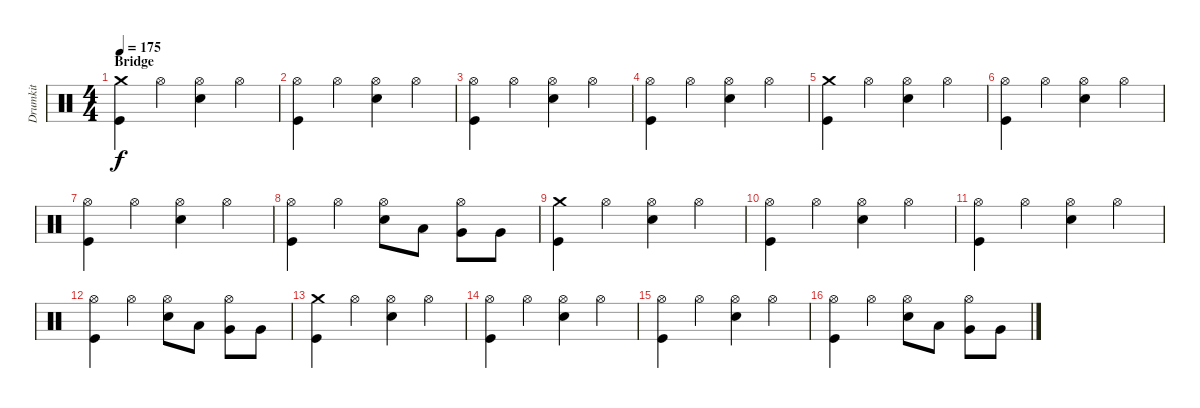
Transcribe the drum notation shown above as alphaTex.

\track ("Drumkit" "Drumkit") {instrument percussion}
\staff {score}
\articulation defaults
\ts (4 4)
\section ("" "Bridge")
\tempo 175
\clef neutral
\ks c
("Kick (hit)" "Crash medium (hit)").4{dy f} "Hi-Hat (open)".4 ("Snare (hit) 2" "Hi-Hat (open)").4 "Hi-Hat (open)".4 |
("Kick (hit)" "Hi-Hat (open)").4 "Hi-Hat (open)".4 ("Snare (hit) 2" "Hi-Hat (open)").4 "Hi-Hat (open)".4 |
("Kick (hit)" "Hi-Hat (open)").4 "Hi-Hat (open)".4 ("Snare (hit) 2" "Hi-Hat (open)").4 "Hi-Hat (open)".4 |
("Kick (hit)" "Hi-Hat (open)").4 "Hi-Hat (open)".4 ("Snare (hit) 2" "Hi-Hat (open)").4 "Hi-Hat (open)".4 |
("Kick (hit)" "Crash medium (hit)").4 "Hi-Hat (open)".4 ("Snare (hit) 2" "Hi-Hat (open)").4 "Hi-Hat (open)".4 |
("Kick (hit)" "Hi-Hat (open)").4 "Hi-Hat (open)".4 ("Snare (hit) 2" "Hi-Hat (open)").4 "Hi-Hat (open)".4 |
("Kick (hit)" "Hi-Hat (open)").4 "Hi-Hat (open)".4 ("Snare (hit) 2" "Hi-Hat (open)").4 "Hi-Hat (open)".4 |
("Kick (hit)" "Hi-Hat (open)").4 "Hi-Hat (open)".4 ("Snare (hit) 2" "Hi-Hat (open)").8 "Low Tom (hit)".8 ("Very Low Tom (hit)" "Hi-Hat (open)").8 "Very Low Tom (hit)".8 |
("Kick (hit)" "Crash medium (hit)").4 "Hi-Hat (open)".4 ("Snare (hit) 2" "Hi-Hat (open)").4 "Hi-Hat (open)".4 |
("Kick (hit)" "Hi-Hat (open)").4 "Hi-Hat (open)".4 ("Snare (hit) 2" "Hi-Hat (open)").4 "Hi-Hat (open)".4 |
("Kick (hit)" "Hi-Hat (open)").4 "Hi-Hat (open)".4 ("Snare (hit) 2" "Hi-Hat (open)").4 "Hi-Hat (open)".4 |
("Kick (hit)" "Hi-Hat (open)").4 "Hi-Hat (open)".4 ("Snare (hit) 2" "Hi-Hat (open)").8 "Low Tom (hit)".8 ("Very Low Tom (hit)" "Hi-Hat (open)").8 "Very Low Tom (hit)".8 |
("Kick (hit)" "Crash medium (hit)").4 "Hi-Hat (open)".4 ("Snare (hit) 2" "Hi-Hat (open)").4 "Hi-Hat (open)".4 |
("Kick (hit)" "Hi-Hat (open)").4 "Hi-Hat (open)".4 ("Snare (hit) 2" "Hi-Hat (open)").4 "Hi-Hat (open)".4 |
("Kick (hit)" "Hi-Hat (open)").4 "Hi-Hat (open)".4 ("Snare (hit) 2" "Hi-Hat (open)").4 "Hi-Hat (open)".4 |
("Kick (hit)" "Hi-Hat (open)").4 "Hi-Hat (open)".4 ("Snare (hit) 2" "Hi-Hat (open)").8 "Low Tom (hit)".8 ("Very Low Tom (hit)" "Hi-Hat (open)").8 "Very Low Tom (hit)".8
